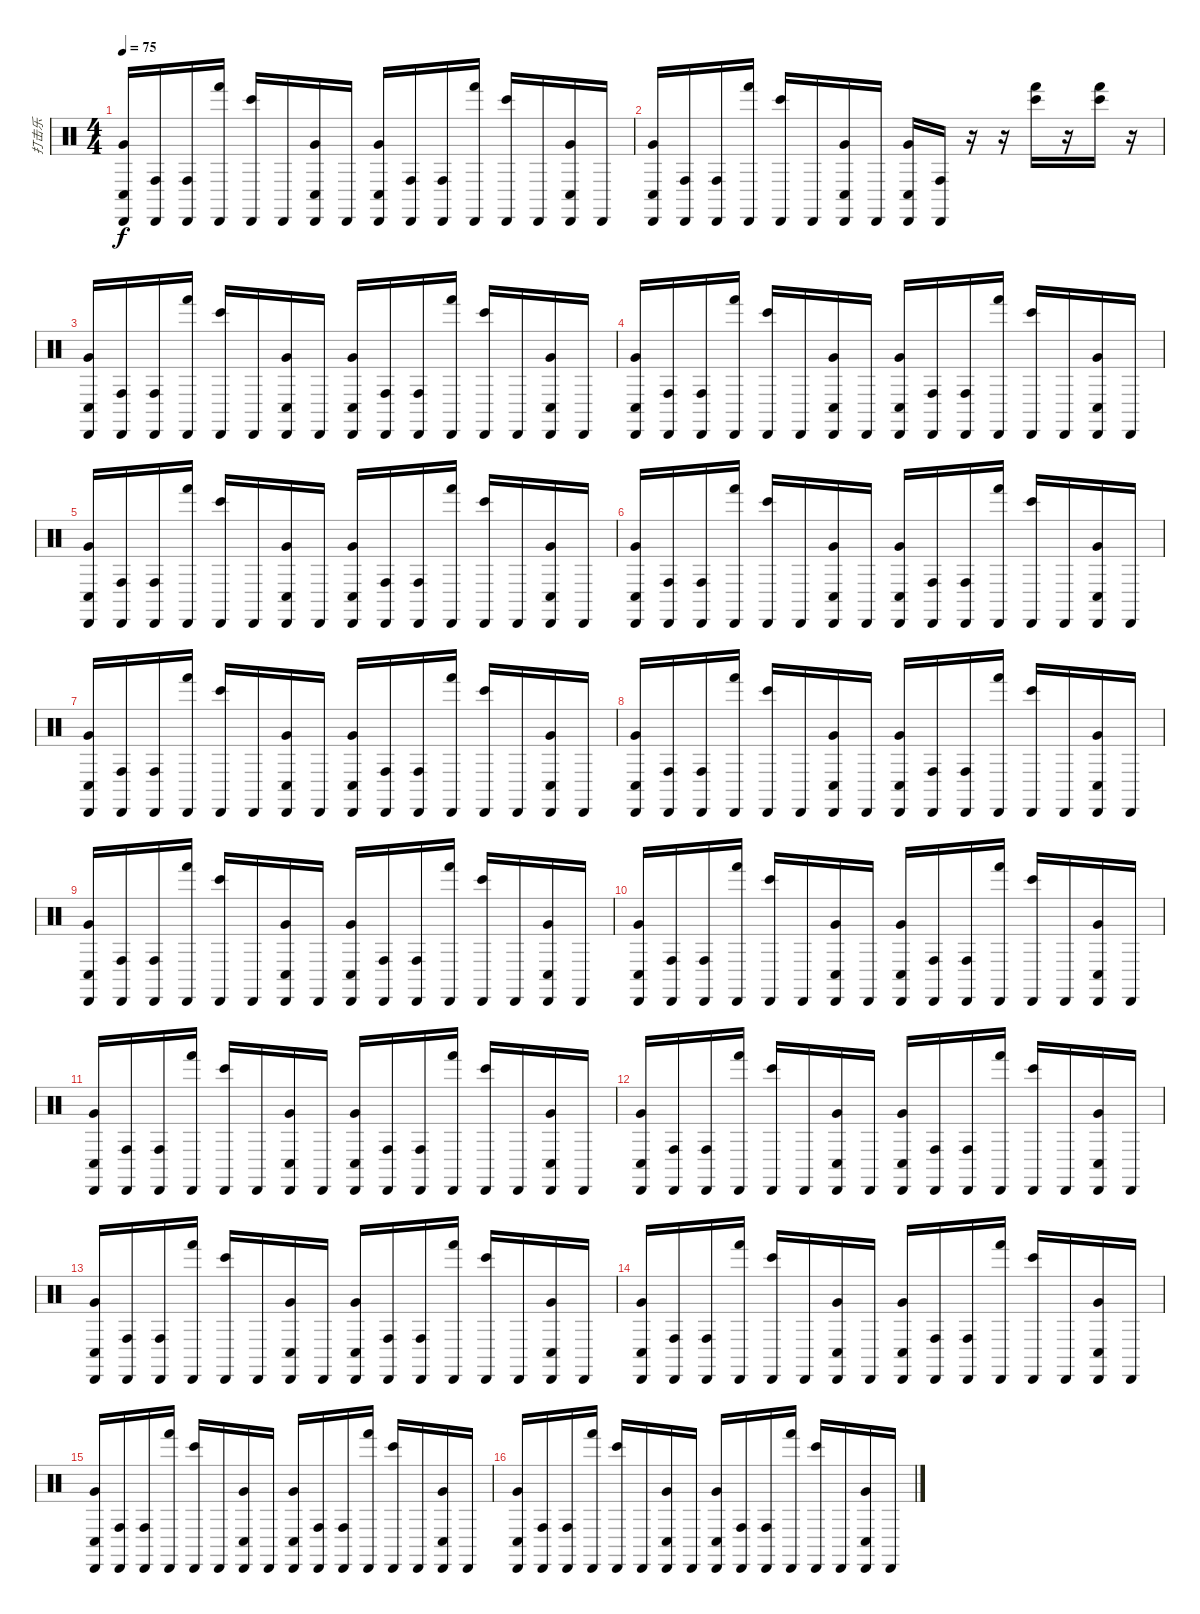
\track ("打击乐" "打击乐") {instrument percussion}
\staff {score}
\articulation defaults
\ts (4 4)
\tempo 75
\clef neutral
\ks c
("Conga low (hit)" "Very Low Tom (hit)" "Cabasa (hit)").16{dy f} ("Conga high (hit)" "Cabasa (hit)").16 ("Conga high (hit)" "Cabasa (hit)").16 ("Hand (hit)" "Cabasa (hit)").16 ("Bongo High (hit)" "Cabasa (hit)").16 "Cabasa (hit)".16 ("Conga low (hit)" "Very Low Tom (hit)" "Cabasa (hit)").16 "Cabasa (hit)".16 ("Conga low (hit)" "Very Low Tom (hit)" "Cabasa (hit)").16 ("Conga high (hit)" "Cabasa (hit)").16 ("Conga high (hit)" "Cabasa (hit)").16 ("Hand (hit)" "Cabasa (hit)").16 ("Bongo High (hit)" "Cabasa (hit)").16 "Cabasa (hit)".16 ("Conga low (hit)" "Very Low Tom (hit)" "Cabasa (hit)").16 "Cabasa (hit)".16 |
("Conga low (hit)" "Very Low Tom (hit)" "Cabasa (hit)").16 ("Conga high (hit)" "Cabasa (hit)").16 ("Conga high (hit)" "Cabasa (hit)").16 ("Hand (hit)" "Cabasa (hit)").16 ("Bongo High (hit)" "Cabasa (hit)").16 "Cabasa (hit)".16 ("Conga low (hit)" "Very Low Tom (hit)" "Cabasa (hit)").16 "Cabasa (hit)".16 ("Conga low (hit)" "Very Low Tom (hit)" "Cabasa (hit)").16 ("Conga high (hit)" "Cabasa (hit)").16 r.16 r.16 ("Bongo High (hit)" "Hand (hit)").16 r.16 ("Bongo High (hit)" "Hand (hit)").16 r.16 |
("Conga low (hit)" "Very Low Tom (hit)" "Cabasa (hit)").16 ("Conga high (hit)" "Cabasa (hit)").16 ("Conga high (hit)" "Cabasa (hit)").16 ("Hand (hit)" "Cabasa (hit)").16 ("Bongo High (hit)" "Cabasa (hit)").16 "Cabasa (hit)".16 ("Conga low (hit)" "Very Low Tom (hit)" "Cabasa (hit)").16 "Cabasa (hit)".16 ("Conga low (hit)" "Very Low Tom (hit)" "Cabasa (hit)").16 ("Conga high (hit)" "Cabasa (hit)").16 ("Conga high (hit)" "Cabasa (hit)").16 ("Hand (hit)" "Cabasa (hit)").16 ("Bongo High (hit)" "Cabasa (hit)").16 "Cabasa (hit)".16 ("Conga low (hit)" "Very Low Tom (hit)" "Cabasa (hit)").16 "Cabasa (hit)".16 |
("Conga low (hit)" "Very Low Tom (hit)" "Cabasa (hit)").16 ("Conga high (hit)" "Cabasa (hit)").16 ("Conga high (hit)" "Cabasa (hit)").16 ("Hand (hit)" "Cabasa (hit)").16 ("Bongo High (hit)" "Cabasa (hit)").16 "Cabasa (hit)".16 ("Conga low (hit)" "Very Low Tom (hit)" "Cabasa (hit)").16 "Cabasa (hit)".16 ("Conga low (hit)" "Very Low Tom (hit)" "Cabasa (hit)").16 ("Conga high (hit)" "Cabasa (hit)").16 ("Conga high (hit)" "Cabasa (hit)").16 ("Hand (hit)" "Cabasa (hit)").16 ("Bongo High (hit)" "Cabasa (hit)").16 "Cabasa (hit)".16 ("Conga low (hit)" "Very Low Tom (hit)" "Cabasa (hit)").16 "Cabasa (hit)".16 |
("Conga low (hit)" "Very Low Tom (hit)" "Cabasa (hit)").16 ("Conga high (hit)" "Cabasa (hit)").16 ("Conga high (hit)" "Cabasa (hit)").16 ("Hand (hit)" "Cabasa (hit)").16 ("Bongo High (hit)" "Cabasa (hit)").16 "Cabasa (hit)".16 ("Conga low (hit)" "Very Low Tom (hit)" "Cabasa (hit)").16 "Cabasa (hit)".16 ("Conga low (hit)" "Very Low Tom (hit)" "Cabasa (hit)").16 ("Conga high (hit)" "Cabasa (hit)").16 ("Conga high (hit)" "Cabasa (hit)").16 ("Hand (hit)" "Cabasa (hit)").16 ("Bongo High (hit)" "Cabasa (hit)").16 "Cabasa (hit)".16 ("Conga low (hit)" "Very Low Tom (hit)" "Cabasa (hit)").16 "Cabasa (hit)".16 |
("Conga low (hit)" "Very Low Tom (hit)" "Cabasa (hit)").16 ("Conga high (hit)" "Cabasa (hit)").16 ("Conga high (hit)" "Cabasa (hit)").16 ("Hand (hit)" "Cabasa (hit)").16 ("Bongo High (hit)" "Cabasa (hit)").16 "Cabasa (hit)".16 ("Conga low (hit)" "Very Low Tom (hit)" "Cabasa (hit)").16 "Cabasa (hit)".16 ("Conga low (hit)" "Very Low Tom (hit)" "Cabasa (hit)").16 ("Conga high (hit)" "Cabasa (hit)").16 ("Conga high (hit)" "Cabasa (hit)").16 ("Hand (hit)" "Cabasa (hit)").16 ("Bongo High (hit)" "Cabasa (hit)").16 "Cabasa (hit)".16 ("Conga low (hit)" "Very Low Tom (hit)" "Cabasa (hit)").16 "Cabasa (hit)".16 |
("Conga low (hit)" "Very Low Tom (hit)" "Cabasa (hit)").16 ("Conga high (hit)" "Cabasa (hit)").16 ("Conga high (hit)" "Cabasa (hit)").16 ("Hand (hit)" "Cabasa (hit)").16 ("Bongo High (hit)" "Cabasa (hit)").16 "Cabasa (hit)".16 ("Conga low (hit)" "Very Low Tom (hit)" "Cabasa (hit)").16 "Cabasa (hit)".16 ("Conga low (hit)" "Very Low Tom (hit)" "Cabasa (hit)").16 ("Conga high (hit)" "Cabasa (hit)").16 ("Conga high (hit)" "Cabasa (hit)").16 ("Hand (hit)" "Cabasa (hit)").16 ("Bongo High (hit)" "Cabasa (hit)").16 "Cabasa (hit)".16 ("Conga low (hit)" "Very Low Tom (hit)" "Cabasa (hit)").16 "Cabasa (hit)".16 |
("Conga low (hit)" "Very Low Tom (hit)" "Cabasa (hit)").16 ("Conga high (hit)" "Cabasa (hit)").16 ("Conga high (hit)" "Cabasa (hit)").16 ("Hand (hit)" "Cabasa (hit)").16 ("Bongo High (hit)" "Cabasa (hit)").16 "Cabasa (hit)".16 ("Conga low (hit)" "Very Low Tom (hit)" "Cabasa (hit)").16 "Cabasa (hit)".16 ("Conga low (hit)" "Very Low Tom (hit)" "Cabasa (hit)").16 ("Conga high (hit)" "Cabasa (hit)").16 ("Conga high (hit)" "Cabasa (hit)").16 ("Hand (hit)" "Cabasa (hit)").16 ("Bongo High (hit)" "Cabasa (hit)").16 "Cabasa (hit)".16 ("Conga low (hit)" "Very Low Tom (hit)" "Cabasa (hit)").16 "Cabasa (hit)".16 |
("Conga low (hit)" "Very Low Tom (hit)" "Cabasa (hit)").16 ("Conga high (hit)" "Cabasa (hit)").16 ("Conga high (hit)" "Cabasa (hit)").16 ("Hand (hit)" "Cabasa (hit)").16 ("Bongo High (hit)" "Cabasa (hit)").16 "Cabasa (hit)".16 ("Conga low (hit)" "Very Low Tom (hit)" "Cabasa (hit)").16 "Cabasa (hit)".16 ("Conga low (hit)" "Very Low Tom (hit)" "Cabasa (hit)").16 ("Conga high (hit)" "Cabasa (hit)").16 ("Conga high (hit)" "Cabasa (hit)").16 ("Hand (hit)" "Cabasa (hit)").16 ("Bongo High (hit)" "Cabasa (hit)").16 "Cabasa (hit)".16 ("Conga low (hit)" "Very Low Tom (hit)" "Cabasa (hit)").16 "Cabasa (hit)".16 |
("Conga low (hit)" "Very Low Tom (hit)" "Cabasa (hit)").16 ("Conga high (hit)" "Cabasa (hit)").16 ("Conga high (hit)" "Cabasa (hit)").16 ("Hand (hit)" "Cabasa (hit)").16 ("Bongo High (hit)" "Cabasa (hit)").16 "Cabasa (hit)".16 ("Conga low (hit)" "Very Low Tom (hit)" "Cabasa (hit)").16 "Cabasa (hit)".16 ("Conga low (hit)" "Very Low Tom (hit)" "Cabasa (hit)").16 ("Conga high (hit)" "Cabasa (hit)").16 ("Conga high (hit)" "Cabasa (hit)").16 ("Hand (hit)" "Cabasa (hit)").16 ("Bongo High (hit)" "Cabasa (hit)").16 "Cabasa (hit)".16 ("Conga low (hit)" "Very Low Tom (hit)" "Cabasa (hit)").16 "Cabasa (hit)".16 |
("Conga low (hit)" "Very Low Tom (hit)" "Cabasa (hit)").16 ("Conga high (hit)" "Cabasa (hit)").16 ("Conga high (hit)" "Cabasa (hit)").16 ("Hand (hit)" "Cabasa (hit)").16 ("Bongo High (hit)" "Cabasa (hit)").16 "Cabasa (hit)".16 ("Conga low (hit)" "Very Low Tom (hit)" "Cabasa (hit)").16 "Cabasa (hit)".16 ("Conga low (hit)" "Very Low Tom (hit)" "Cabasa (hit)").16 ("Conga high (hit)" "Cabasa (hit)").16 ("Conga high (hit)" "Cabasa (hit)").16 ("Hand (hit)" "Cabasa (hit)").16 ("Bongo High (hit)" "Cabasa (hit)").16 "Cabasa (hit)".16 ("Conga low (hit)" "Very Low Tom (hit)" "Cabasa (hit)").16 "Cabasa (hit)".16 |
("Conga low (hit)" "Very Low Tom (hit)" "Cabasa (hit)").16 ("Conga high (hit)" "Cabasa (hit)").16 ("Conga high (hit)" "Cabasa (hit)").16 ("Hand (hit)" "Cabasa (hit)").16 ("Bongo High (hit)" "Cabasa (hit)").16 "Cabasa (hit)".16 ("Conga low (hit)" "Very Low Tom (hit)" "Cabasa (hit)").16 "Cabasa (hit)".16 ("Conga low (hit)" "Very Low Tom (hit)" "Cabasa (hit)").16 ("Conga high (hit)" "Cabasa (hit)").16 ("Conga high (hit)" "Cabasa (hit)").16 ("Hand (hit)" "Cabasa (hit)").16 ("Bongo High (hit)" "Cabasa (hit)").16 "Cabasa (hit)".16 ("Conga low (hit)" "Very Low Tom (hit)" "Cabasa (hit)").16 "Cabasa (hit)".16 |
("Conga low (hit)" "Very Low Tom (hit)" "Cabasa (hit)").16 ("Conga high (hit)" "Cabasa (hit)").16 ("Conga high (hit)" "Cabasa (hit)").16 ("Hand (hit)" "Cabasa (hit)").16 ("Bongo High (hit)" "Cabasa (hit)").16 "Cabasa (hit)".16 ("Conga low (hit)" "Very Low Tom (hit)" "Cabasa (hit)").16 "Cabasa (hit)".16 ("Conga low (hit)" "Very Low Tom (hit)" "Cabasa (hit)").16 ("Conga high (hit)" "Cabasa (hit)").16 ("Conga high (hit)" "Cabasa (hit)").16 ("Hand (hit)" "Cabasa (hit)").16 ("Bongo High (hit)" "Cabasa (hit)").16 "Cabasa (hit)".16 ("Conga low (hit)" "Very Low Tom (hit)" "Cabasa (hit)").16 "Cabasa (hit)".16 |
("Conga low (hit)" "Very Low Tom (hit)" "Cabasa (hit)").16 ("Conga high (hit)" "Cabasa (hit)").16 ("Conga high (hit)" "Cabasa (hit)").16 ("Hand (hit)" "Cabasa (hit)").16 ("Bongo High (hit)" "Cabasa (hit)").16 "Cabasa (hit)".16 ("Conga low (hit)" "Very Low Tom (hit)" "Cabasa (hit)").16 "Cabasa (hit)".16 ("Conga low (hit)" "Very Low Tom (hit)" "Cabasa (hit)").16 ("Conga high (hit)" "Cabasa (hit)").16 ("Conga high (hit)" "Cabasa (hit)").16 ("Hand (hit)" "Cabasa (hit)").16 ("Bongo High (hit)" "Cabasa (hit)").16 "Cabasa (hit)".16 ("Conga low (hit)" "Very Low Tom (hit)" "Cabasa (hit)").16 "Cabasa (hit)".16 |
("Conga low (hit)" "Very Low Tom (hit)" "Cabasa (hit)").16 ("Conga high (hit)" "Cabasa (hit)").16 ("Conga high (hit)" "Cabasa (hit)").16 ("Hand (hit)" "Cabasa (hit)").16 ("Bongo High (hit)" "Cabasa (hit)").16 "Cabasa (hit)".16 ("Conga low (hit)" "Very Low Tom (hit)" "Cabasa (hit)").16 "Cabasa (hit)".16 ("Conga low (hit)" "Very Low Tom (hit)" "Cabasa (hit)").16 ("Conga high (hit)" "Cabasa (hit)").16 ("Conga high (hit)" "Cabasa (hit)").16 ("Hand (hit)" "Cabasa (hit)").16 ("Bongo High (hit)" "Cabasa (hit)").16 "Cabasa (hit)".16 ("Conga low (hit)" "Very Low Tom (hit)" "Cabasa (hit)").16 "Cabasa (hit)".16 |
("Conga low (hit)" "Very Low Tom (hit)" "Cabasa (hit)").16 ("Conga high (hit)" "Cabasa (hit)").16 ("Conga high (hit)" "Cabasa (hit)").16 ("Hand (hit)" "Cabasa (hit)").16 ("Bongo High (hit)" "Cabasa (hit)").16 "Cabasa (hit)".16 ("Conga low (hit)" "Very Low Tom (hit)" "Cabasa (hit)").16 "Cabasa (hit)".16 ("Conga low (hit)" "Very Low Tom (hit)" "Cabasa (hit)").16 ("Conga high (hit)" "Cabasa (hit)").16 ("Conga high (hit)" "Cabasa (hit)").16 ("Hand (hit)" "Cabasa (hit)").16 ("Bongo High (hit)" "Cabasa (hit)").16 "Cabasa (hit)".16 ("Conga low (hit)" "Very Low Tom (hit)" "Cabasa (hit)").16 "Cabasa (hit)".16
